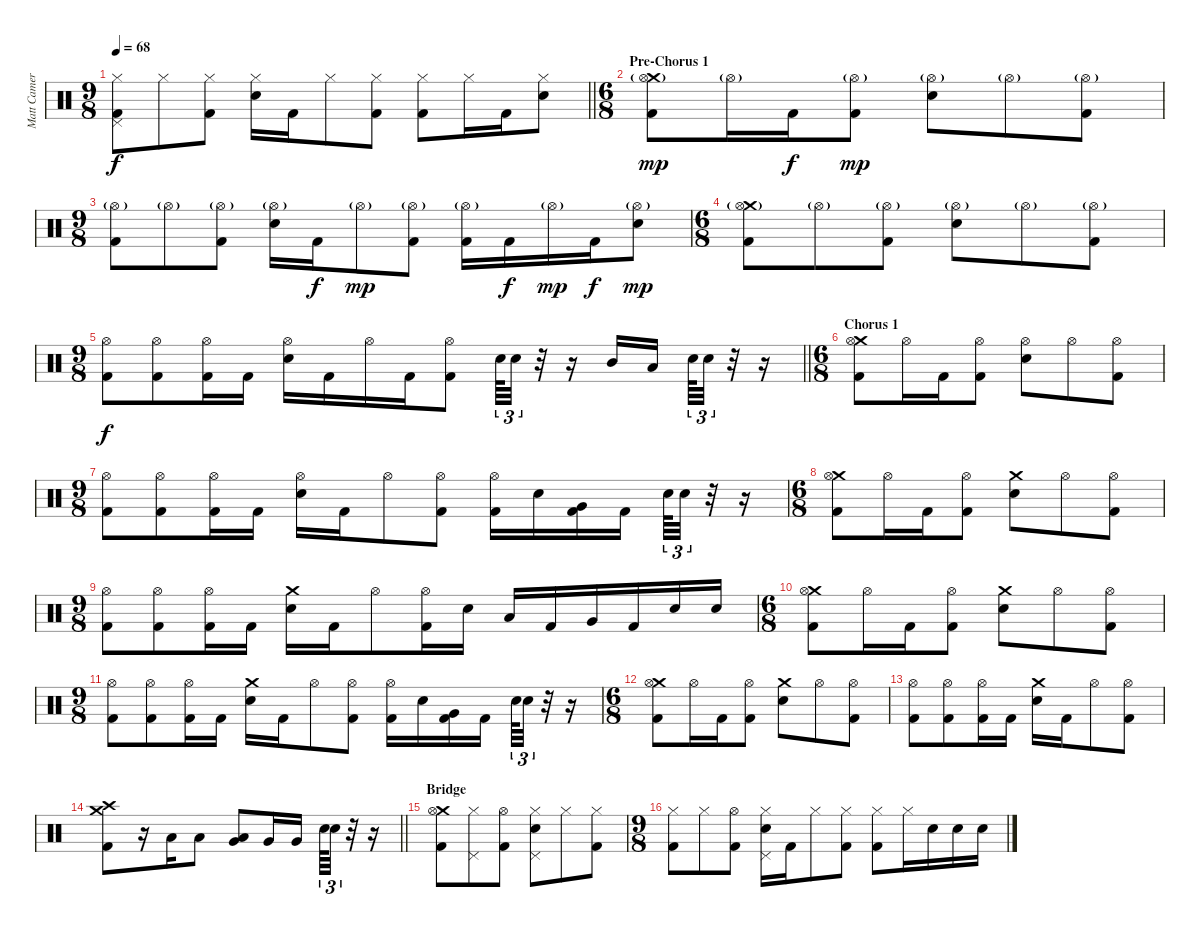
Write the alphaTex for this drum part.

\track ("Matt Cameron" "Matt Camer") {instrument percussion}
\staff {score}
\articulation defaults
\ts (9 8)
\tempo 68
\clef neutral
\barLineRight lightlight
\ks c
("Pedal Hi-Hat (hit)" "Hi-Hat (closed)" "Kick (hit) 2").8{dy f} "Hi-Hat (closed)".8 ("Hi-Hat (closed)" "Kick (hit) 2").8 ("Hi-Hat (closed)" "Electric Snare (hit)").16 "Kick (hit) 2".16 "Hi-Hat (closed)".8 ("Hi-Hat (closed)" "Kick (hit) 2").8 ("Hi-Hat (closed)" "Kick (hit) 2").8 "Hi-Hat (closed)".16 "Kick (hit) 2".16 ("Hi-Hat (closed)" "Electric Snare (hit)").8 |
\ts (6 8)
\section ("" "Pre-Chorus 1")
("Crash medium (hit)" "Hi-Hat (open)"{g} "Kick (hit) 2").8{dy mp} "Hi-Hat (open)"{g}.16 "Kick (hit) 2".16{dy f} ("Hi-Hat (open)"{g} "Kick (hit) 2").8{dy mp} ("Hi-Hat (open)"{g} "Electric Snare (hit)").8 "Hi-Hat (open)"{g}.8 ("Hi-Hat (open)"{g} "Kick (hit) 2").8 |
\ts (9 8)
("Hi-Hat (open)"{g} "Kick (hit) 2").8 "Hi-Hat (open)"{g}.8 ("Hi-Hat (open)"{g} "Kick (hit) 2").8 ("Hi-Hat (open)"{g} "Electric Snare (hit)").16 "Kick (hit) 2".16{dy f} "Hi-Hat (open)"{g}.8{dy mp} ("Hi-Hat (open)"{g} "Kick (hit) 2").8 ("Hi-Hat (open)"{g} "Kick (hit) 2").16 "Kick (hit) 2".16{dy f} "Hi-Hat (open)"{g}.16{dy mp} "Kick (hit) 2".16{dy f} ("Hi-Hat (open)"{g} "Electric Snare (hit)").8{dy mp} |
\ts (6 8)
("Crash medium (hit)" "Hi-Hat (open)"{g} "Kick (hit) 2").8 "Hi-Hat (open)"{g}.8 ("Hi-Hat (open)"{g} "Kick (hit) 2").8 ("Hi-Hat (open)"{g} "Electric Snare (hit)").8 "Hi-Hat (open)"{g}.8 ("Hi-Hat (open)"{g} "Kick (hit) 2").8 |
\ts (9 8)
\barLineRight lightlight
("Hi-Hat (open)" "Kick (hit) 2").8{dy f} ("Hi-Hat (open)" "Kick (hit) 2").8 ("Hi-Hat (open)" "Kick (hit) 2").16 "Kick (hit) 2".16 ("Hi-Hat (open)" "Electric Snare (hit)").16 "Kick (hit) 2".16 "Hi-Hat (open)".16 "Kick (hit) 2".16 ("Hi-Hat (open)" "Kick (hit) 2").8 "Electric Snare (hit)".64{tu (3 2)} "Electric Snare (hit)".32{tu (3 2)} r.32 r.16 "Mid Tom (hit)".16 "Low Tom (hit)".16{beam splitsecondary} "Electric Snare (hit)".64{tu (3 2)} "Electric Snare (hit)".32{tu (3 2)} r.32 r.16 |
\ts (6 8)
\section ("" "Chorus 1")
("Crash medium (hit)" "Hi-Hat (open)" "Kick (hit) 2").8 "Hi-Hat (open)".16 "Kick (hit) 2".16 ("Hi-Hat (open)" "Kick (hit) 2").8 ("Hi-Hat (open)" "Electric Snare (hit)").8 "Hi-Hat (open)".8 ("Hi-Hat (open)" "Kick (hit) 2").8 |
\ts (9 8)
("Hi-Hat (open)" "Kick (hit) 2").8 ("Hi-Hat (open)" "Kick (hit) 2").8 ("Hi-Hat (open)" "Kick (hit) 2").16 "Kick (hit) 2".16 ("Hi-Hat (open)" "Electric Snare (hit)").16 "Kick (hit) 2".16 "Hi-Hat (open)".8 ("Hi-Hat (open)" "Kick (hit) 2").8 ("Hi-Hat (open)" "Kick (hit) 2").16 "Electric Snare (hit)".16 ("Very Low Tom (hit)" "Kick (hit) 2").16 "Kick (hit) 2".16{beam splitsecondary} "Electric Snare (hit)".64{tu (3 2)} "Electric Snare (hit)".32{tu (3 2)} r.32 r.16 |
\ts (6 8)
("Crash medium (hit)" "Hi-Hat (open)" "Kick (hit) 2").8 "Hi-Hat (open)".16 "Kick (hit) 2".16 ("Hi-Hat (open)" "Kick (hit) 2").8 ("Crash medium (hit)" "Electric Snare (hit)").8 "Hi-Hat (open)".8 ("Hi-Hat (open)" "Kick (hit) 2").8 |
\ts (9 8)
("Hi-Hat (open)" "Kick (hit) 2").8 ("Hi-Hat (open)" "Kick (hit) 2").8 ("Hi-Hat (open)" "Kick (hit) 2").16 "Kick (hit) 2".16 ("Crash medium (hit)" "Electric Snare (hit)").16 "Kick (hit) 2".16 "Hi-Hat (open)".8 ("Hi-Hat (open)" "Kick (hit) 2").16 "Electric Snare (hit)".16 "Low Tom (hit)".16 "Kick (hit) 2".16 "Very Low Tom (hit)".16 "Kick (hit) 2".16 "Electric Snare (hit)".16 "Electric Snare (hit)".16 |
\ts (6 8)
("Crash medium (hit)" "Hi-Hat (open)" "Kick (hit) 2").8 "Hi-Hat (open)".16 "Kick (hit) 2".16 ("Hi-Hat (open)" "Kick (hit) 2").8 ("Crash medium (hit)" "Electric Snare (hit)").8 "Hi-Hat (open)".8 ("Hi-Hat (open)" "Kick (hit) 2").8 |
\ts (9 8)
("Hi-Hat (open)" "Kick (hit) 2").8 ("Hi-Hat (open)" "Kick (hit) 2").8 ("Hi-Hat (open)" "Kick (hit) 2").16 "Kick (hit) 2".16 ("Crash medium (hit)" "Electric Snare (hit)").16 "Kick (hit) 2".16 "Hi-Hat (open)".8 ("Hi-Hat (open)" "Kick (hit) 2").8 ("Hi-Hat (open)" "Kick (hit) 2").16 "Electric Snare (hit)".16 ("Very Low Tom (hit)" "Kick (hit) 2").16 "Kick (hit) 2".16{beam splitsecondary} "Electric Snare (hit)".64{tu (3 2)} "Electric Snare (hit)".32{tu (3 2)} r.32 r.16 |
\ts (6 8)
("Crash medium (hit)" "Hi-Hat (open)" "Kick (hit) 2").8 "Hi-Hat (open)".16 "Kick (hit) 2".16 ("Hi-Hat (open)" "Kick (hit) 2").8 ("Crash medium (hit)" "Electric Snare (hit)").8 "Hi-Hat (open)".8 ("Hi-Hat (open)" "Kick (hit) 2").8 |
("Hi-Hat (open)" "Kick (hit) 2").8 ("Hi-Hat (open)" "Kick (hit) 2").8 ("Hi-Hat (open)" "Kick (hit) 2").16 "Kick (hit) 2".16 ("Crash medium (hit)" "Electric Snare (hit)").16 "Kick (hit) 2".16 "Hi-Hat (open)".8 ("Hi-Hat (open)" "Kick (hit) 2").8 |
\barLineRight lightlight
("Crash high (hit)" "Crash medium (hit)" "Kick (hit) 2").8 r.16 "Low Tom (hit)".16 "Low Tom (hit)".8 ("Low Tom (hit)" "Very Low Tom (hit)").8 "Very Low Tom (hit)".16 "Very Low Tom (hit)".16{beam splitsecondary} "Electric Snare (hit)".64{tu (3 2)} "Electric Snare (hit)".32{tu (3 2)} r.32 r.16 |
\section ("" "Bridge")
("Crash medium (hit)" "Hi-Hat (open)" "Kick (hit) 2").8 ("Pedal Hi-Hat (hit)" "Hi-Hat (closed)").8 ("Hi-Hat (open)" "Kick (hit) 2").8 ("Pedal Hi-Hat (hit)" "Hi-Hat (closed)" "Electric Snare (hit)").8 "Hi-Hat (closed)".8 ("Hi-Hat (closed)" "Kick (hit) 2").8 |
\ts (9 8)
("Hi-Hat (closed)" "Kick (hit) 2").8 "Hi-Hat (closed)".8 ("Hi-Hat (open)" "Kick (hit) 2").8 ("Pedal Hi-Hat (hit)" "Hi-Hat (closed)" "Electric Snare (hit)").16 "Kick (hit) 2".16 "Hi-Hat (closed)".8 ("Hi-Hat (closed)" "Kick (hit) 2").8 ("Hi-Hat (closed)" "Kick (hit) 2").8 "Hi-Hat (closed)".16 "Electric Snare (hit)".16 "Electric Snare (hit)".16 "Electric Snare (hit)".16
